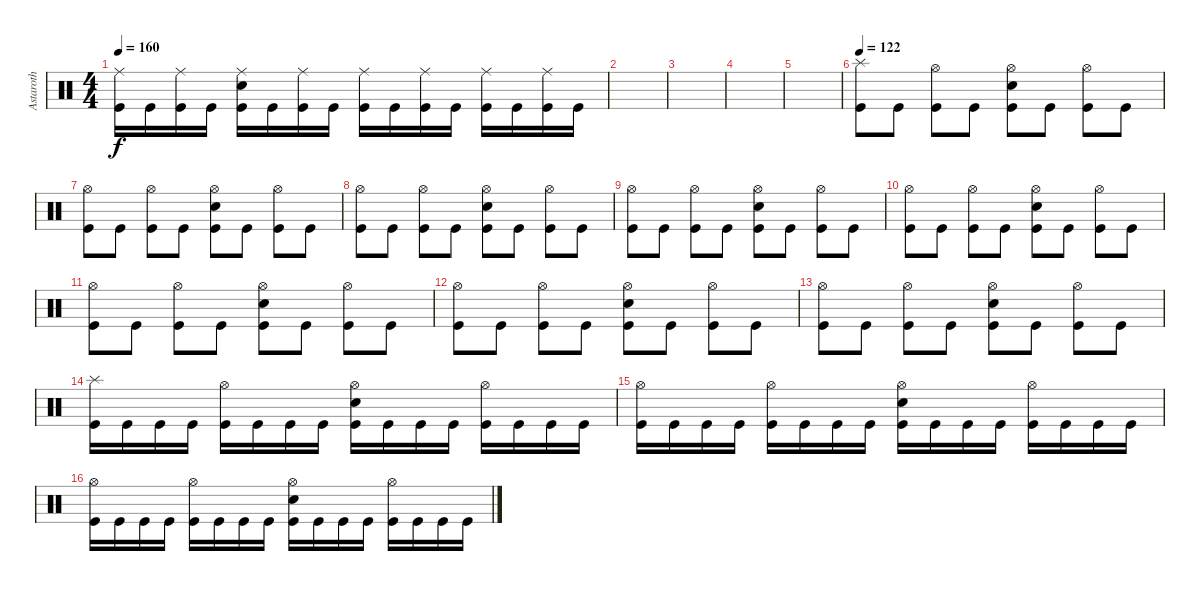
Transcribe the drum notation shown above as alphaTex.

\track ("Astaroth" "Astaroth") {instrument percussion}
\staff {score}
\articulation defaults
\ts (4 4)
\tempo 160
\clef neutral
\ks c
("Kick (hit)" "Ride (middle)").16{dy f} "Kick (hit)".16 ("Kick (hit)" "Ride (middle)").16 "Kick (hit)".16 ("Kick (hit)" "Electric Snare (hit)" "Ride (middle)").16 "Kick (hit)".16 ("Kick (hit)" "Ride (middle)").16 "Kick (hit)".16 ("Kick (hit)" "Ride (middle)").16 "Kick (hit)".16 ("Kick (hit)" "Ride (middle)").16 "Kick (hit)".16 ("Kick (hit)" "Ride (middle)").16 "Kick (hit)".16 ("Kick (hit)" "Ride (middle)").16 "Kick (hit)".16 |
|
|
|
|
\tempo 122
("Kick (hit)" "Splash (hit)").8 "Kick (hit)".8 ("Kick (hit)" "Hi-Hat (open)").8 "Kick (hit)".8 ("Kick (hit)" "Hi-Hat (open)" "Electric Snare (hit)").8 "Kick (hit)".8 ("Kick (hit)" "Hi-Hat (open)").8 "Kick (hit)".8 |
("Kick (hit)" "Hi-Hat (open)").8 "Kick (hit)".8 ("Kick (hit)" "Hi-Hat (open)").8 "Kick (hit)".8 ("Kick (hit)" "Hi-Hat (open)" "Electric Snare (hit)").8 "Kick (hit)".8 ("Kick (hit)" "Hi-Hat (open)").8 "Kick (hit)".8 |
("Kick (hit)" "Hi-Hat (open)").8 "Kick (hit)".8 ("Kick (hit)" "Hi-Hat (open)").8 "Kick (hit)".8 ("Kick (hit)" "Hi-Hat (open)" "Electric Snare (hit)").8 "Kick (hit)".8 ("Kick (hit)" "Hi-Hat (open)").8 "Kick (hit)".8 |
("Kick (hit)" "Hi-Hat (open)").8 "Kick (hit)".8 ("Kick (hit)" "Hi-Hat (open)").8 "Kick (hit)".8 ("Kick (hit)" "Hi-Hat (open)" "Electric Snare (hit)").8 "Kick (hit)".8 ("Kick (hit)" "Hi-Hat (open)").8 "Kick (hit)".8 |
("Kick (hit)" "Hi-Hat (open)").8 "Kick (hit)".8 ("Kick (hit)" "Hi-Hat (open)").8 "Kick (hit)".8 ("Kick (hit)" "Hi-Hat (open)" "Electric Snare (hit)").8 "Kick (hit)".8 ("Kick (hit)" "Hi-Hat (open)").8 "Kick (hit)".8 |
("Kick (hit)" "Hi-Hat (open)").8 "Kick (hit)".8 ("Kick (hit)" "Hi-Hat (open)").8 "Kick (hit)".8 ("Kick (hit)" "Hi-Hat (open)" "Electric Snare (hit)").8 "Kick (hit)".8 ("Kick (hit)" "Hi-Hat (open)").8 "Kick (hit)".8 |
("Kick (hit)" "Hi-Hat (open)").8 "Kick (hit)".8 ("Kick (hit)" "Hi-Hat (open)").8 "Kick (hit)".8 ("Kick (hit)" "Hi-Hat (open)" "Electric Snare (hit)").8 "Kick (hit)".8 ("Kick (hit)" "Hi-Hat (open)").8 "Kick (hit)".8 |
("Kick (hit)" "Hi-Hat (open)").8 "Kick (hit)".8 ("Kick (hit)" "Hi-Hat (open)").8 "Kick (hit)".8 ("Kick (hit)" "Hi-Hat (open)" "Electric Snare (hit)").8 "Kick (hit)".8 ("Kick (hit)" "Hi-Hat (open)").8 "Kick (hit)".8 |
("Kick (hit)" "Splash (hit)").16 "Kick (hit)".16 "Kick (hit)".16 "Kick (hit)".16 ("Kick (hit)" "Hi-Hat (open)").16 "Kick (hit)".16 "Kick (hit)".16 "Kick (hit)".16 ("Kick (hit)" "Hi-Hat (open)" "Electric Snare (hit)").16 "Kick (hit)".16 "Kick (hit)".16 "Kick (hit)".16 ("Kick (hit)" "Hi-Hat (open)").16 "Kick (hit)".16 "Kick (hit)".16 "Kick (hit)".16 |
("Kick (hit)" "Hi-Hat (open)").16 "Kick (hit)".16 "Kick (hit)".16 "Kick (hit)".16 ("Kick (hit)" "Hi-Hat (open)").16 "Kick (hit)".16 "Kick (hit)".16 "Kick (hit)".16 ("Kick (hit)" "Hi-Hat (open)" "Electric Snare (hit)").16 "Kick (hit)".16 "Kick (hit)".16 "Kick (hit)".16 ("Kick (hit)" "Hi-Hat (open)").16 "Kick (hit)".16 "Kick (hit)".16 "Kick (hit)".16 |
("Kick (hit)" "Hi-Hat (open)").16 "Kick (hit)".16 "Kick (hit)".16 "Kick (hit)".16 ("Kick (hit)" "Hi-Hat (open)").16 "Kick (hit)".16 "Kick (hit)".16 "Kick (hit)".16 ("Kick (hit)" "Hi-Hat (open)" "Electric Snare (hit)").16 "Kick (hit)".16 "Kick (hit)".16 "Kick (hit)".16 ("Kick (hit)" "Hi-Hat (open)").16 "Kick (hit)".16 "Kick (hit)".16 "Kick (hit)".16
